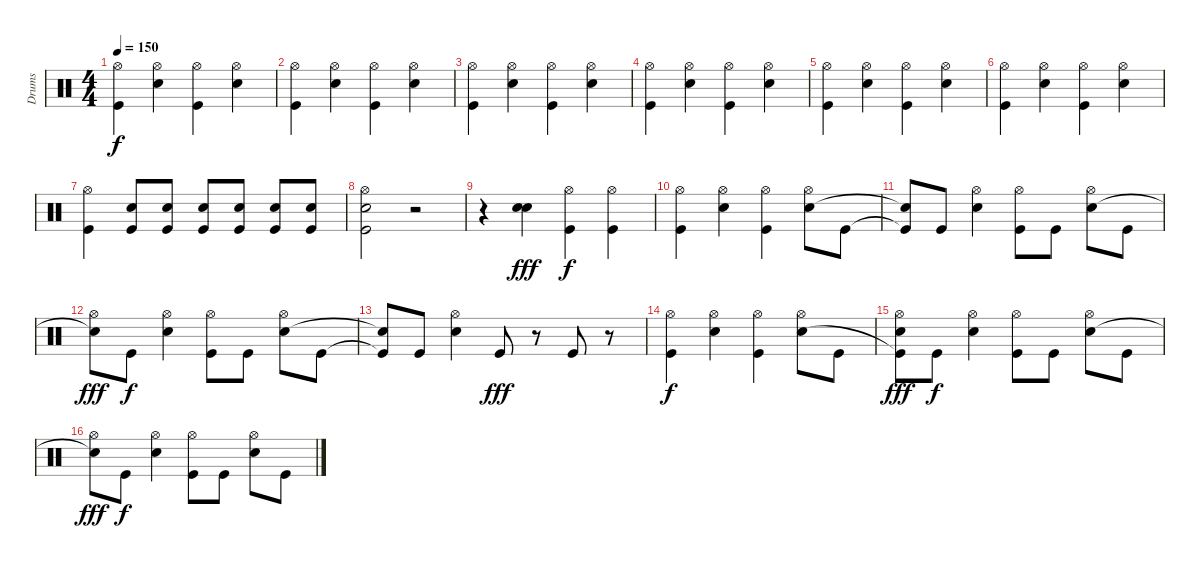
\track ("Drums" "Drums") {instrument percussion}
\staff {score}
\articulation defaults
\ts (4 4)
\tempo 150
\clef neutral
\ks c
("Hi-Hat (open)" "Kick (hit)").4{dy f} ("Hi-Hat (open)" "Snare (hit) 2").4 ("Hi-Hat (open)" "Kick (hit)").4 ("Hi-Hat (open)" "Snare (hit) 2").4 |
("Hi-Hat (open)" "Kick (hit)").4 ("Hi-Hat (open)" "Snare (hit) 2").4 ("Hi-Hat (open)" "Kick (hit)").4 ("Hi-Hat (open)" "Snare (hit) 2").4 |
("Hi-Hat (open)" "Kick (hit)").4 ("Hi-Hat (open)" "Snare (hit) 2").4 ("Hi-Hat (open)" "Kick (hit)").4 ("Hi-Hat (open)" "Snare (hit) 2").4 |
("Hi-Hat (open)" "Kick (hit)").4 ("Hi-Hat (open)" "Snare (hit) 2").4 ("Hi-Hat (open)" "Kick (hit)").4 ("Hi-Hat (open)" "Snare (hit) 2").4 |
("Hi-Hat (open)" "Kick (hit)").4 ("Hi-Hat (open)" "Snare (hit) 2").4 ("Hi-Hat (open)" "Kick (hit)").4 ("Hi-Hat (open)" "Snare (hit) 2").4 |
("Hi-Hat (open)" "Kick (hit)").4 ("Hi-Hat (open)" "Snare (hit) 2").4 ("Hi-Hat (open)" "Kick (hit)").4 ("Hi-Hat (open)" "Snare (hit) 2").4 |
("Hi-Hat (open)" "Kick (hit)").4 ("Snare (hit) 2" "Kick (hit)").8 ("Snare (hit) 2" "Kick (hit)").8 ("Snare (hit) 2" "Kick (hit)").8 ("Snare (hit) 2" "Kick (hit)").8 ("Snare (hit) 2" "Kick (hit)").8 ("Snare (hit) 2" "Kick (hit)").8 |
("Hi-Hat (open)" "Snare (hit) 2" "Kick (hit)").2 r.2 |
r.4 ("Snare (hit) 2" "Snare (hit) 2").4{dy fff} ("Hi-Hat (open)" "Kick (hit)").4{dy f} ("Hi-Hat (open)" "Kick (hit)").4 |
("Hi-Hat (open)" "Kick (hit)").4 ("Hi-Hat (open)" "Snare (hit) 2").4 ("Hi-Hat (open)" "Kick (hit)").4 ("Hi-Hat (open)" "Snare (hit) 2").8 "Kick (hit)".8 |
("Kick (hit)"{t} "Snare (hit)"{t}).8 "Kick (hit)".8 ("Hi-Hat (open)" "Snare (hit) 2").4 ("Hi-Hat (open)" "Kick (hit)").8 "Kick (hit)".8 ("Hi-Hat (open)" "Snare (hit) 2").8 "Kick (hit)".8 |
("Hi-Hat (open)" "Snare (hit)"{t}).8{dy fff} "Kick (hit)".8{dy f} ("Hi-Hat (open)" "Snare (hit) 2").4 ("Hi-Hat (open)" "Kick (hit)").8 "Kick (hit)".8 ("Hi-Hat (open)" "Snare (hit) 2").8 "Kick (hit)".8 |
("Kick (hit)"{t} "Snare (hit)"{t}).8 "Kick (hit)".8 ("Hi-Hat (open)" "Snare (hit) 2").4 "Kick (hit)".8{dy fff} r.8 "Kick (hit)".8 r.8 |
("Hi-Hat (open)" "Kick (hit)").4{dy f} ("Hi-Hat (open)" "Snare (hit) 2").4 ("Hi-Hat (open)" "Kick (hit)").4 ("Hi-Hat (open)" "Snare (hit) 2").8 "Kick (hit)".8 |
("Hi-Hat (open)" "Kick (hit)"{t} "Snare (hit)").8{dy fff} "Kick (hit)".8{dy f} ("Hi-Hat (open)" "Snare (hit) 2").4 ("Hi-Hat (open)" "Kick (hit)").8 "Kick (hit)".8 ("Hi-Hat (open)" "Snare (hit) 2").8 "Kick (hit)".8 |
("Hi-Hat (open)" "Snare (hit)"{t}).8{dy fff} "Kick (hit)".8{dy f} ("Hi-Hat (open)" "Snare (hit) 2").4 ("Hi-Hat (open)" "Kick (hit)").8 "Kick (hit)".8 ("Hi-Hat (open)" "Snare (hit) 2").8 "Kick (hit)".8
